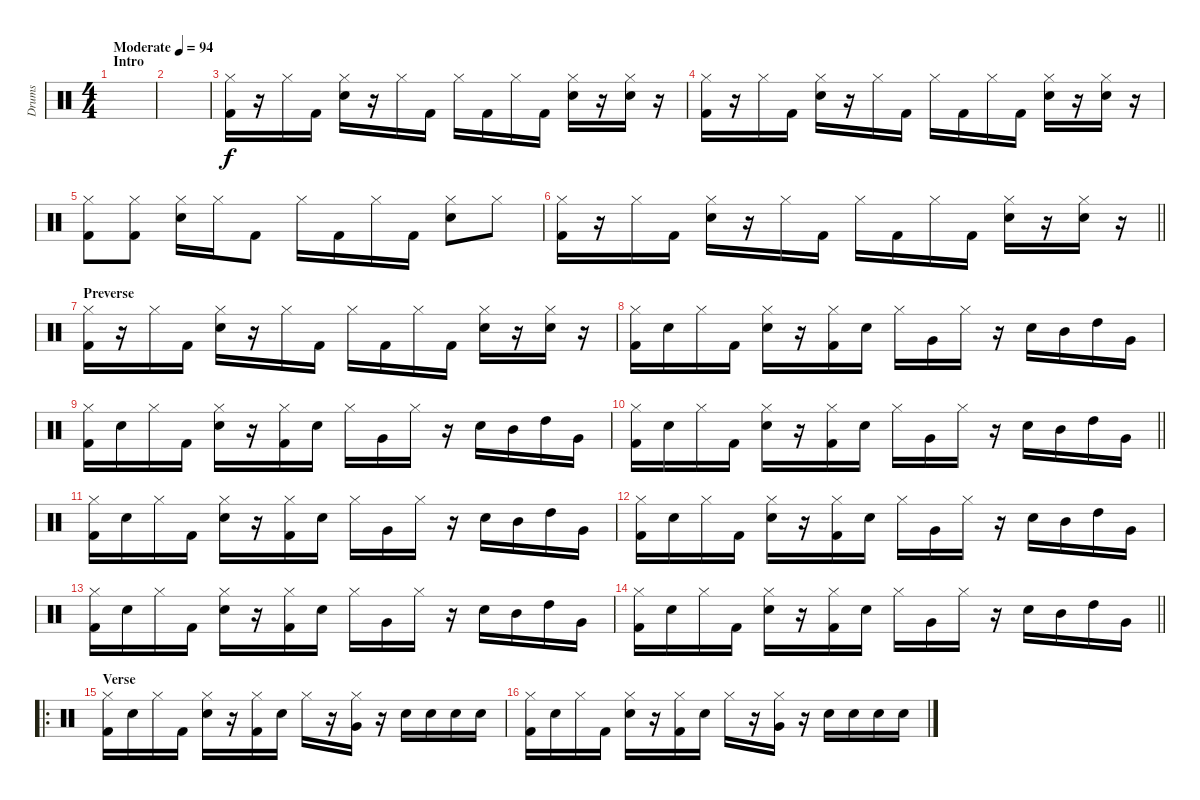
\track ("Drums" "Drums") {instrument percussion}
\staff {score}
\articulation defaults
\ts (4 4)
\section ("" "Intro")
\tempo (94 "Moderate")
\clef neutral
\ks c
|
|
("Hi-Hat (closed)" "Kick (hit) 2").16 r.16 "Hi-Hat (closed)".16 "Kick (hit) 2".16 ("Hi-Hat (closed)" "Snare (hit) 2").16 r.16 "Hi-Hat (closed)".16 "Kick (hit) 2".16 "Hi-Hat (closed)".16 "Kick (hit) 2".16 "Hi-Hat (closed)".16 "Kick (hit) 2".16 ("Hi-Hat (closed)" "Snare (hit) 2").16 r.16 ("Hi-Hat (closed)" "Snare (hit) 2").16 r.16 |
("Hi-Hat (closed)" "Kick (hit) 2").16 r.16 "Hi-Hat (closed)".16 "Kick (hit) 2".16 ("Hi-Hat (closed)" "Snare (hit) 2").16 r.16 "Hi-Hat (closed)".16 "Kick (hit) 2".16 "Hi-Hat (closed)".16 "Kick (hit) 2".16 "Hi-Hat (closed)".16 "Kick (hit) 2".16 ("Hi-Hat (closed)" "Snare (hit) 2").16 r.16 ("Hi-Hat (closed)" "Snare (hit) 2").16 r.16 |
("Hi-Hat (closed)" "Kick (hit) 2").8 ("Hi-Hat (closed)" "Kick (hit) 2").8 ("Hi-Hat (closed)" "Snare (hit) 2").16 "Hi-Hat (closed)".16 "Kick (hit) 2".8 "Hi-Hat (closed)".16 "Kick (hit) 2".16 "Hi-Hat (closed)".16 "Kick (hit) 2".16 ("Hi-Hat (closed)" "Snare (hit) 2").8 "Hi-Hat (closed)".8 |
\barLineRight lightlight
("Hi-Hat (closed)" "Kick (hit) 2").16 r.16 "Hi-Hat (closed)".16 "Kick (hit) 2".16 ("Hi-Hat (closed)" "Snare (hit) 2").16 r.16 "Hi-Hat (closed)".16 "Kick (hit) 2".16 "Hi-Hat (closed)".16 "Kick (hit) 2".16 "Hi-Hat (closed)".16 "Kick (hit) 2".16 ("Hi-Hat (closed)" "Snare (hit) 2").16 r.16 ("Hi-Hat (closed)" "Snare (hit) 2").16 r.16 |
\section ("" "Preverse")
("Hi-Hat (closed)" "Kick (hit) 2").16 r.16 "Hi-Hat (closed)".16 "Kick (hit) 2".16 ("Hi-Hat (closed)" "Snare (hit) 2").16 r.16 "Hi-Hat (closed)".16 "Kick (hit) 2".16 "Hi-Hat (closed)".16 "Kick (hit) 2".16 "Hi-Hat (closed)".16 "Kick (hit) 2".16 ("Hi-Hat (closed)" "Snare (hit) 2").16 r.16 ("Hi-Hat (closed)" "Snare (hit) 2").16 r.16 |
("Hi-Hat (closed)" "Kick (hit) 2").16 "Snare (hit) 2".16 "Hi-Hat (closed)".16 "Kick (hit) 2".16 ("Hi-Hat (closed)" "Snare (hit) 2").16 r.16 ("Hi-Hat (closed)" "Kick (hit) 2").16 "Snare (hit) 2".16 "Hi-Hat (closed)".16 "Very Low Tom (hit)".16 "Hi-Hat (closed)".16 r.16 "Snare (hit) 2".16 "Mid Tom (hit)".16 "High Tom (hit)".16 "Very Low Tom (hit)".16 |
("Hi-Hat (closed)" "Kick (hit) 2").16 "Snare (hit) 2".16 "Hi-Hat (closed)".16 "Kick (hit) 2".16 ("Hi-Hat (closed)" "Snare (hit) 2").16 r.16 ("Hi-Hat (closed)" "Kick (hit) 2").16 "Snare (hit) 2".16 "Hi-Hat (closed)".16 "Very Low Tom (hit)".16 "Hi-Hat (closed)".16 r.16 "Snare (hit) 2".16 "Mid Tom (hit)".16 "High Tom (hit)".16 "Very Low Tom (hit)".16 |
\barLineRight lightlight
("Hi-Hat (closed)" "Kick (hit) 2").16 "Snare (hit) 2".16 "Hi-Hat (closed)".16 "Kick (hit) 2".16 ("Hi-Hat (closed)" "Snare (hit) 2").16 r.16 ("Hi-Hat (closed)" "Kick (hit) 2").16 "Snare (hit) 2".16 "Hi-Hat (closed)".16 "Very Low Tom (hit)".16 "Hi-Hat (closed)".16 r.16 "Snare (hit) 2".16 "Mid Tom (hit)".16 "High Tom (hit)".16 "Very Low Tom (hit)".16 |
("Hi-Hat (closed)" "Kick (hit) 2").16 "Snare (hit) 2".16 "Hi-Hat (closed)".16 "Kick (hit) 2".16 ("Hi-Hat (closed)" "Snare (hit) 2").16 r.16 ("Hi-Hat (closed)" "Kick (hit) 2").16 "Snare (hit) 2".16 "Hi-Hat (closed)".16 "Very Low Tom (hit)".16 "Hi-Hat (closed)".16 r.16 "Snare (hit) 2".16 "Mid Tom (hit)".16 "High Tom (hit)".16 "Very Low Tom (hit)".16 |
("Hi-Hat (closed)" "Kick (hit) 2").16 "Snare (hit) 2".16 "Hi-Hat (closed)".16 "Kick (hit) 2".16 ("Hi-Hat (closed)" "Snare (hit) 2").16 r.16 ("Hi-Hat (closed)" "Kick (hit) 2").16 "Snare (hit) 2".16 "Hi-Hat (closed)".16 "Very Low Tom (hit)".16 "Hi-Hat (closed)".16 r.16 "Snare (hit) 2".16 "Mid Tom (hit)".16 "High Tom (hit)".16 "Very Low Tom (hit)".16 |
("Hi-Hat (closed)" "Kick (hit) 2").16 "Snare (hit) 2".16 "Hi-Hat (closed)".16 "Kick (hit) 2".16 ("Hi-Hat (closed)" "Snare (hit) 2").16 r.16 ("Hi-Hat (closed)" "Kick (hit) 2").16 "Snare (hit) 2".16 "Hi-Hat (closed)".16 "Very Low Tom (hit)".16 "Hi-Hat (closed)".16 r.16 "Snare (hit) 2".16 "Mid Tom (hit)".16 "High Tom (hit)".16 "Very Low Tom (hit)".16 |
\barLineRight lightlight
("Hi-Hat (closed)" "Kick (hit) 2").16 "Snare (hit) 2".16 "Hi-Hat (closed)".16 "Kick (hit) 2".16 ("Hi-Hat (closed)" "Snare (hit) 2").16 r.16 ("Hi-Hat (closed)" "Kick (hit) 2").16 "Snare (hit) 2".16 "Hi-Hat (closed)".16 "Very Low Tom (hit)".16 "Hi-Hat (closed)".16 r.16 "Snare (hit) 2".16 "Mid Tom (hit)".16 "High Tom (hit)".16 "Very Low Tom (hit)".16 |
\ro
\section ("" "Verse")
("Hi-Hat (closed)" "Kick (hit) 2").16 "Snare (hit) 2".16 "Hi-Hat (closed)".16 "Kick (hit) 2".16 ("Hi-Hat (closed)" "Snare (hit) 2").16 r.16 ("Hi-Hat (closed)" "Kick (hit) 2").16 "Snare (hit) 2".16 "Hi-Hat (closed)".16 r.16 ("Hi-Hat (closed)" "Very Low Tom (hit)").16 r.16 "Snare (hit) 2".16 "Snare (hit) 2".16 "Snare (hit) 2".16 "Snare (hit) 2".16 |
("Hi-Hat (closed)" "Kick (hit) 2").16 "Snare (hit) 2".16 "Hi-Hat (closed)".16 "Kick (hit) 2".16 ("Hi-Hat (closed)" "Snare (hit) 2").16 r.16 ("Hi-Hat (closed)" "Kick (hit) 2").16 "Snare (hit) 2".16 "Hi-Hat (closed)".16 r.16 ("Hi-Hat (closed)" "Very Low Tom (hit)").16 r.16 "Snare (hit) 2".16 "Snare (hit) 2".16 "Snare (hit) 2".16 "Snare (hit) 2".16
